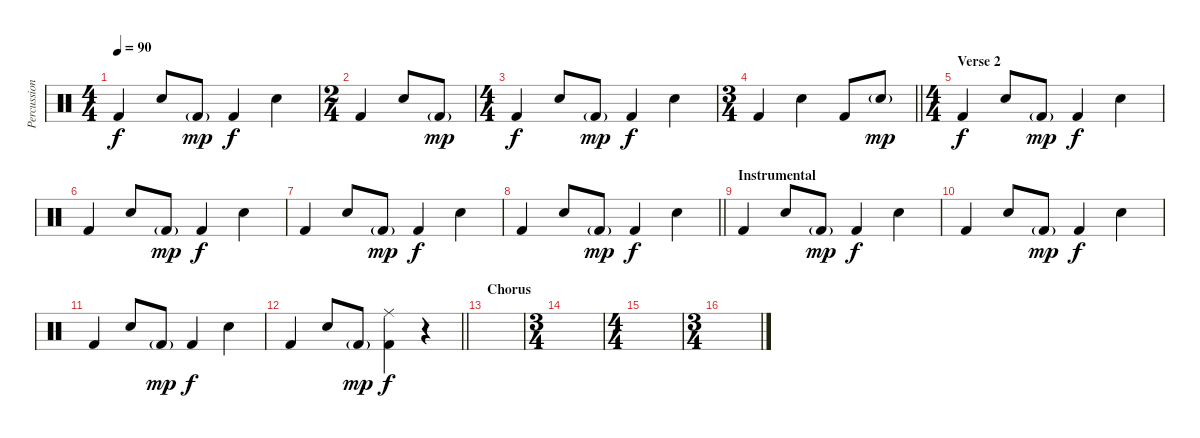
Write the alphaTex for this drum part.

\track ("Percussion" "Percussion") {instrument percussion}
\staff {score}
\articulation defaults
\ts (4 4)
\tempo 90
\clef neutral
\ks c "Kick (hit) 2".4{dy f} "Snare (hit) 2".8 "Kick (hit) 2"{g}.8{dy mp} "Kick (hit) 2".4{dy f} "Snare (hit) 2".4
|
\ts (2 4)
"Kick (hit) 2".4 "Snare (hit) 2".8 "Kick (hit) 2"{g}.8{dy mp} |
\ts (4 4)
"Kick (hit) 2".4{dy f} "Snare (hit) 2".8 "Kick (hit) 2"{g}.8{dy mp} "Kick (hit) 2".4{dy f} "Snare (hit) 2".4 |
\ts (3 4)
\barLineRight lightlight "Kick (hit) 2".4 "Snare (hit) 2".4 "Kick (hit) 2".8 "Snare (hit) 2"{g}.8{dy mp}
|
\ts (4 4)
\section ("" "Verse 2")
"Kick (hit) 2".4{dy f} "Snare (hit) 2".8 "Kick (hit) 2"{g}.8{dy mp} "Kick (hit) 2".4{dy f} "Snare (hit) 2".4 |
"Kick (hit) 2".4 "Snare (hit) 2".8 "Kick (hit) 2"{g}.8{dy mp} "Kick (hit) 2".4{dy f} "Snare (hit) 2".4 |
"Kick (hit) 2".4 "Snare (hit) 2".8 "Kick (hit) 2"{g}.8{dy mp} "Kick (hit) 2".4{dy f} "Snare (hit) 2".4 |
\barLineRight lightlight "Kick (hit) 2".4 "Snare (hit) 2".8 "Kick (hit) 2"{g}.8{dy mp} "Kick (hit) 2".4{dy f} "Snare (hit) 2".4
|
\section ("" "Instrumental")
"Kick (hit) 2".4 "Snare (hit) 2".8 "Kick (hit) 2"{g}.8{dy mp} "Kick (hit) 2".4{dy f} "Snare (hit) 2".4 |
"Kick (hit) 2".4 "Snare (hit) 2".8 "Kick (hit) 2"{g}.8{dy mp} "Kick (hit) 2".4{dy f} "Snare (hit) 2".4 |
"Kick (hit) 2".4 "Snare (hit) 2".8 "Kick (hit) 2"{g}.8{dy mp} "Kick (hit) 2".4{dy f} "Snare (hit) 2".4 |
\barLineRight lightlight "Kick (hit) 2".4 "Snare (hit) 2".8 "Kick (hit) 2"{g}.8{dy mp}
("Ride (middle)" "Kick (hit) 2").4{dy f} r.4 |
\section ("" "Chorus")
|
\ts (3 4)
|
\ts (4 4)
|
\ts (3 4)
